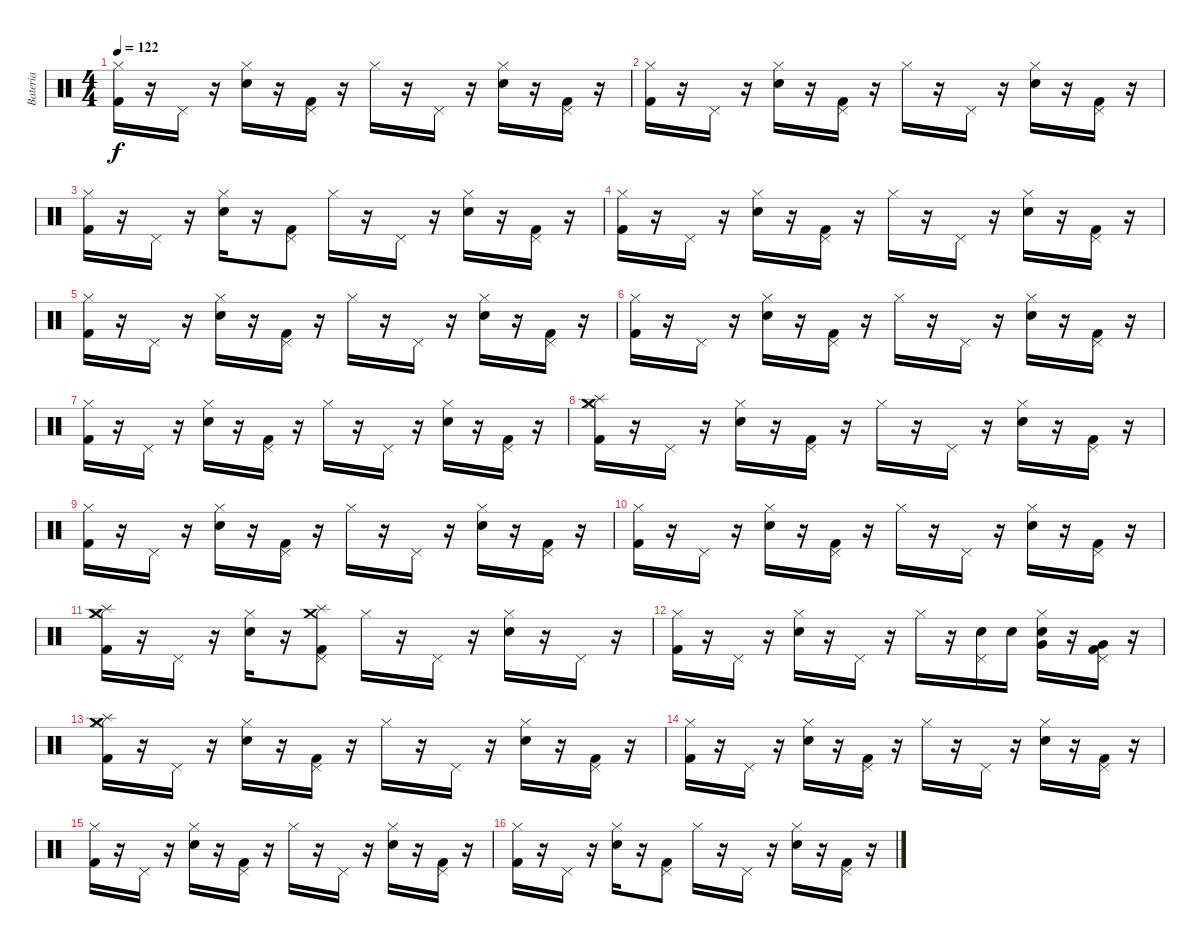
\track ("Bateria" "Bateria") {instrument percussion}
\staff {score}
\articulation defaults
\ts (4 4)
\tempo 122
\clef neutral
\ks c
("Kick (hit) 2" "Hi-Hat (closed)").16{dy f} r.16 "Pedal Hi-Hat (hit)".16 r.16 ("Snare (hit) 2" "Hi-Hat (closed)").16 r.16 ("Kick (hit) 2" "Pedal Hi-Hat (hit)").16 r.16 "Hi-Hat (closed)".16 r.16 "Pedal Hi-Hat (hit)".16 r.16 ("Hi-Hat (closed)" "Snare (hit) 2").16 r.16 ("Pedal Hi-Hat (hit)" "Kick (hit) 2").16 r.16 |
("Hi-Hat (closed)" "Kick (hit) 2").16 r.16 "Pedal Hi-Hat (hit)".16 r.16 ("Snare (hit) 2" "Hi-Hat (closed)").16 r.16 ("Kick (hit) 2" "Pedal Hi-Hat (hit)").16 r.16 "Hi-Hat (closed)".16 r.16 "Pedal Hi-Hat (hit)".16 r.16 ("Snare (hit) 2" "Hi-Hat (closed)").16 r.16 ("Kick (hit) 2" "Pedal Hi-Hat (hit)").16 r.16 |
("Hi-Hat (closed)" "Kick (hit) 2").16 r.16 "Pedal Hi-Hat (hit)".16 r.16 ("Hi-Hat (closed)" "Snare (hit) 2").16 r.16 ("Kick (hit) 2" "Pedal Hi-Hat (hit)").8 "Hi-Hat (closed)".16 r.16 "Pedal Hi-Hat (hit)".16 r.16 ("Snare (hit) 2" "Hi-Hat (closed)").16 r.16 ("Kick (hit) 2" "Pedal Hi-Hat (hit)").16 r.16 |
("Kick (hit) 2" "Hi-Hat (closed)").16 r.16 "Pedal Hi-Hat (hit)".16 r.16 ("Hi-Hat (closed)" "Snare (hit) 2").16 r.16 ("Pedal Hi-Hat (hit)" "Kick (hit) 2").16 r.16 "Hi-Hat (closed)".16 r.16 "Pedal Hi-Hat (hit)".16 r.16 ("Snare (hit) 2" "Hi-Hat (closed)").16 r.16 ("Kick (hit) 2" "Pedal Hi-Hat (hit)").16 r.16 |
("Kick (hit) 2" "Hi-Hat (closed)").16 r.16 "Pedal Hi-Hat (hit)".16 r.16 ("Snare (hit) 2" "Hi-Hat (closed)").16 r.16 ("Kick (hit) 2" "Pedal Hi-Hat (hit)").16 r.16 "Hi-Hat (closed)".16 r.16 "Pedal Hi-Hat (hit)".16 r.16 ("Hi-Hat (closed)" "Snare (hit) 2").16 r.16 ("Kick (hit) 2" "Pedal Hi-Hat (hit)").16 r.16 |
("Kick (hit) 2" "Hi-Hat (closed)").16 r.16 "Pedal Hi-Hat (hit)".16 r.16 ("Snare (hit) 2" "Hi-Hat (closed)").16 r.16 ("Kick (hit) 2" "Pedal Hi-Hat (hit)").16 r.16 "Hi-Hat (closed)".16 r.16 "Pedal Hi-Hat (hit)".16 r.16 ("Hi-Hat (closed)" "Snare (hit) 2").16 r.16 ("Pedal Hi-Hat (hit)" "Kick (hit) 2").16 r.16 |
("Hi-Hat (closed)" "Kick (hit) 2").16 r.16 "Pedal Hi-Hat (hit)".16 r.16 ("Snare (hit) 2" "Hi-Hat (closed)").16 r.16 ("Kick (hit) 2" "Pedal Hi-Hat (hit)").16 r.16 "Hi-Hat (closed)".16 r.16 "Pedal Hi-Hat (hit)".16 r.16 ("Snare (hit) 2" "Hi-Hat (closed)").16 r.16 ("Kick (hit) 2" "Pedal Hi-Hat (hit)").16 r.16 |
("Hi-Hat (closed)" "Crash medium (hit)" "Splash (hit)" "Kick (hit) 2").16 r.16 "Pedal Hi-Hat (hit)".16 r.16 ("Hi-Hat (closed)" "Snare (hit) 2").16 r.16 ("Kick (hit) 2" "Pedal Hi-Hat (hit)").16 r.16 "Hi-Hat (closed)".16 r.16 "Pedal Hi-Hat (hit)".16 r.16 ("Snare (hit) 2" "Hi-Hat (closed)").16 r.16 ("Kick (hit) 2" "Pedal Hi-Hat (hit)").16 r.16 |
("Kick (hit) 2" "Hi-Hat (closed)").16 r.16 "Pedal Hi-Hat (hit)".16 r.16 ("Hi-Hat (closed)" "Snare (hit) 2").16 r.16 ("Pedal Hi-Hat (hit)" "Kick (hit) 2").16 r.16 "Hi-Hat (closed)".16 r.16 "Pedal Hi-Hat (hit)".16 r.16 ("Snare (hit) 2" "Hi-Hat (closed)").16 r.16 ("Kick (hit) 2" "Pedal Hi-Hat (hit)").16 r.16 |
("Kick (hit) 2" "Hi-Hat (closed)").16 r.16 "Pedal Hi-Hat (hit)".16 r.16 ("Snare (hit) 2" "Hi-Hat (closed)").16 r.16 ("Kick (hit) 2" "Pedal Hi-Hat (hit)").16 r.16 "Hi-Hat (closed)".16 r.16 "Pedal Hi-Hat (hit)".16 r.16 ("Hi-Hat (closed)" "Snare (hit) 2").16 r.16 ("Kick (hit) 2" "Pedal Hi-Hat (hit)").16 r.16 |
("Kick (hit) 2" "Hi-Hat (closed)" "Crash medium (hit)" "Splash (hit)").16 r.16 "Pedal Hi-Hat (hit)".16 r.16 ("Snare (hit) 2" "Hi-Hat (closed)").16 r.16 ("Kick (hit) 2" "Pedal Hi-Hat (hit)" "Crash medium (hit)" "Splash (hit)").8 "Hi-Hat (closed)".16 r.16 "Pedal Hi-Hat (hit)".16 r.16 ("Hi-Hat (closed)" "Snare (hit) 2").16 r.16 "Pedal Hi-Hat (hit)".16 r.16 |
("Hi-Hat (closed)" "Kick (hit) 2").16 r.16 "Pedal Hi-Hat (hit)".16 r.16 ("Snare (hit) 2" "Hi-Hat (closed)").16 r.16 "Pedal Hi-Hat (hit)".16 r.16 "Hi-Hat (closed)".16 r.16 ("Pedal Hi-Hat (hit)" "Snare (hit) 2").16 "Snare (hit) 2".16 ("Snare (hit) 2" "Hi-Hat (closed)" "Very Low Tom (hit)").16 r.16 ("Kick (hit) 2" "Pedal Hi-Hat (hit)" "Very Low Tom (hit)").16 r.16 |
("Hi-Hat (closed)" "Crash medium (hit)" "Splash (hit)" "Kick (hit) 2").16 r.16 "Pedal Hi-Hat (hit)".16 r.16 ("Hi-Hat (closed)" "Snare (hit) 2").16 r.16 ("Kick (hit) 2" "Pedal Hi-Hat (hit)").16 r.16 "Hi-Hat (closed)".16 r.16 "Pedal Hi-Hat (hit)".16 r.16 ("Snare (hit) 2" "Hi-Hat (closed)").16 r.16 ("Kick (hit) 2" "Pedal Hi-Hat (hit)").16 r.16 |
("Kick (hit) 2" "Hi-Hat (closed)").16 r.16 "Pedal Hi-Hat (hit)".16 r.16 ("Hi-Hat (closed)" "Snare (hit) 2").16 r.16 ("Pedal Hi-Hat (hit)" "Kick (hit) 2").16 r.16 "Hi-Hat (closed)".16 r.16 "Pedal Hi-Hat (hit)".16 r.16 ("Snare (hit) 2" "Hi-Hat (closed)").16 r.16 ("Kick (hit) 2" "Pedal Hi-Hat (hit)").16 r.16 |
("Kick (hit) 2" "Hi-Hat (closed)").16 r.16 "Pedal Hi-Hat (hit)".16 r.16 ("Snare (hit) 2" "Hi-Hat (closed)").16 r.16 ("Kick (hit) 2" "Pedal Hi-Hat (hit)").16 r.16 "Hi-Hat (closed)".16 r.16 "Pedal Hi-Hat (hit)".16 r.16 ("Hi-Hat (closed)" "Snare (hit) 2").16 r.16 ("Kick (hit) 2" "Pedal Hi-Hat (hit)").16 r.16 |
("Kick (hit) 2" "Hi-Hat (closed)").16 r.16 "Pedal Hi-Hat (hit)".16 r.16 ("Snare (hit) 2" "Hi-Hat (closed)").16 r.16 ("Kick (hit) 2" "Pedal Hi-Hat (hit)").8 "Hi-Hat (closed)".16 r.16 "Pedal Hi-Hat (hit)".16 r.16 ("Hi-Hat (closed)" "Snare (hit) 2").16 r.16 ("Pedal Hi-Hat (hit)" "Kick (hit) 2").16 r.16
